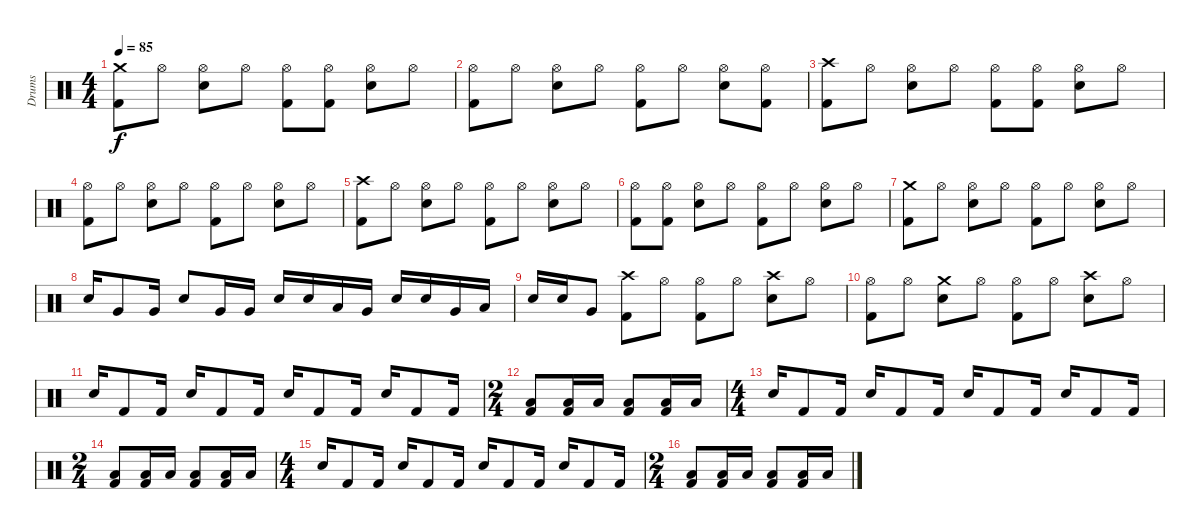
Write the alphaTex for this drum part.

\track ("Drums" "Drums") {instrument percussion}
\staff {score}
\articulation defaults
\ts (4 4)
\tempo 85
\clef neutral
\ks c
("Crash medium (hit)" "Kick (hit) 2").8{dy f} "Hi-Hat (open)".8 ("Hi-Hat (open)" "Snare (hit) 2").8 "Hi-Hat (open)".8 ("Kick (hit) 2" "Hi-Hat (open)").8 ("Kick (hit) 2" "Hi-Hat (open)").8 ("Snare (hit) 2" "Hi-Hat (open)").8 "Hi-Hat (open)".8 |
("Kick (hit) 2" "Hi-Hat (open)").8 "Hi-Hat (open)".8 ("Snare (hit) 2" "Hi-Hat (open)").8 "Hi-Hat (open)".8 ("Kick (hit) 2" "Hi-Hat (open)").8 "Hi-Hat (open)".8 ("Snare (hit) 2" "Hi-Hat (open)").8 ("Kick (hit) 2" "Hi-Hat (open)").8 |
("Crash high (hit)" "Kick (hit) 2").8 "Hi-Hat (open)".8 ("Snare (hit) 2" "Hi-Hat (open)").8 "Hi-Hat (open)".8 ("Hi-Hat (open)" "Kick (hit) 2").8 ("Hi-Hat (open)" "Kick (hit) 2").8 ("Hi-Hat (open)" "Snare (hit) 2").8 "Hi-Hat (open)".8 |
("Kick (hit) 2" "Hi-Hat (open)").8 "Hi-Hat (open)".8 ("Hi-Hat (open)" "Snare (hit) 2").8 "Hi-Hat (open)".8 ("Hi-Hat (open)" "Kick (hit) 2").8 "Hi-Hat (open)".8 ("Snare (hit) 2" "Hi-Hat (open)").8 "Hi-Hat (open)".8 |
("Crash high (hit)" "Kick (hit) 2").8 "Hi-Hat (open)".8 ("Snare (hit) 2" "Hi-Hat (open)").8 "Hi-Hat (open)".8 ("Hi-Hat (open)" "Kick (hit) 2").8 "Hi-Hat (open)".8 ("Snare (hit) 2" "Hi-Hat (open)").8 "Hi-Hat (open)".8 |
("Kick (hit) 2" "Hi-Hat (open)").8 ("Kick (hit) 2" "Hi-Hat (open)").8 ("Snare (hit) 2" "Hi-Hat (open)").8 "Hi-Hat (open)".8 ("Hi-Hat (open)" "Kick (hit) 2").8 "Hi-Hat (open)".8 ("Hi-Hat (open)" "Snare (hit) 2").8 "Hi-Hat (open)".8 |
("Crash medium (hit)" "Kick (hit) 2").8 "Hi-Hat (open)".8 ("Snare (hit) 2" "Hi-Hat (open)").8 "Hi-Hat (open)".8 ("Kick (hit) 2" "Hi-Hat (open)").8 "Hi-Hat (open)".8 ("Snare (hit) 2" "Hi-Hat (open)").8 "Hi-Hat (open)".8 |
"Snare (hit) 2".16 "Very Low Tom (hit)".8 "Very Low Tom (hit)".16 "Snare (hit) 2".8 "Very Low Tom (hit)".16 "Very Low Tom (hit)".16 "Snare (hit) 2".16 "Snare (hit) 2".16 "Low Tom (hit)".16 "Very Low Tom (hit)".16 "Snare (hit) 2".16 "Snare (hit) 2".16 "Very Low Tom (hit)".16 "Low Floor Tom (hit)".16 |
"Snare (hit) 2".16 "Snare (hit) 2".16 "Very Low Tom (hit)".8 ("Crash high (hit)" "Kick (hit) 2").8 "Hi-Hat (open)".8 ("Kick (hit) 2" "Hi-Hat (open)").8 "Hi-Hat (open)".8 ("Snare (hit) 2" "Crash high (hit)").8 "Hi-Hat (open)".8 |
("Hi-Hat (open)" "Kick (hit) 2").8 "Hi-Hat (open)".8 ("Snare (hit) 2" "Crash medium (hit)").8 "Hi-Hat (open)".8 ("Kick (hit) 2" "Hi-Hat (open)").8 "Hi-Hat (open)".8 ("Crash high (hit)" "Snare (hit) 2").8 "Hi-Hat (open)".8 |
"Snare (hit) 2".16 "Kick (hit) 2".8 "Kick (hit) 2".16 "Snare (hit) 2".16 "Kick (hit) 2".8 "Kick (hit) 2".16 "Snare (hit) 2".16 "Kick (hit) 2".8 "Kick (hit) 2".16 "Snare (hit) 2".16 "Kick (hit) 2".8 "Kick (hit) 2".16 |
\ts (2 4)
("Low Floor Tom (hit)" "Kick (hit) 2").8 ("Kick (hit) 2" "Low Floor Tom (hit)").16 "Low Floor Tom (hit)".16 ("Low Floor Tom (hit)" "Kick (hit) 2").8 ("Kick (hit) 2" "Low Floor Tom (hit)").16 "Low Floor Tom (hit)".16 |
\ts (4 4)
"Snare (hit) 2".16 "Kick (hit) 2".8 "Kick (hit) 2".16 "Snare (hit) 2".16 "Kick (hit) 2".8 "Kick (hit) 2".16 "Snare (hit) 2".16 "Kick (hit) 2".8 "Kick (hit) 2".16 "Snare (hit) 2".16 "Kick (hit) 2".8 "Kick (hit) 2".16 |
\ts (2 4)
("Low Floor Tom (hit)" "Kick (hit) 2").8 ("Kick (hit) 2" "Low Floor Tom (hit)").16 "Low Floor Tom (hit)".16 ("Low Floor Tom (hit)" "Kick (hit) 2").8 ("Kick (hit) 2" "Low Floor Tom (hit)").16 "Low Floor Tom (hit)".16 |
\ts (4 4)
"Snare (hit) 2".16 "Kick (hit) 2".8 "Kick (hit) 2".16 "Snare (hit) 2".16 "Kick (hit) 2".8 "Kick (hit) 2".16 "Snare (hit) 2".16 "Kick (hit) 2".8 "Kick (hit) 2".16 "Snare (hit) 2".16 "Kick (hit) 2".8 "Kick (hit) 2".16 |
\ts (2 4)
("Kick (hit) 2" "Low Floor Tom (hit)").8 ("Kick (hit) 2" "Low Floor Tom (hit)").16 "Low Floor Tom (hit)".16 ("Kick (hit) 2" "Low Floor Tom (hit)").8 ("Kick (hit) 2" "Low Floor Tom (hit)").16 "Low Floor Tom (hit)".16
